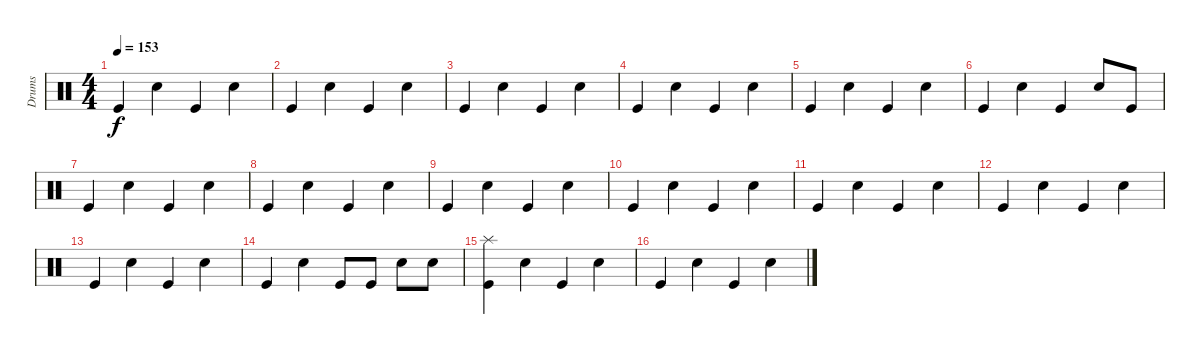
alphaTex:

\track ("Drums" "Drums") {instrument percussion}
\staff {score}
\articulation defaults
\ts (4 4)
\tempo 153
\clef neutral
\ks c "Kick (hit)".4{dy f} "Snare (hit) 2".4 "Kick (hit)".4 "Snare (hit) 2".4
|
"Kick (hit)".4 "Snare (hit) 2".4 "Kick (hit)".4 "Snare (hit) 2".4 |
"Kick (hit)".4 "Snare (hit) 2".4 "Kick (hit)".4 "Snare (hit) 2".4 |
"Kick (hit)".4 "Snare (hit) 2".4 "Kick (hit)".4 "Snare (hit) 2".4 |
"Kick (hit)".4 "Snare (hit) 2".4 "Kick (hit)".4 "Snare (hit) 2".4 |
"Kick (hit)".4 "Snare (hit) 2".4 "Kick (hit)".4 "Snare (hit) 2".8 "Kick (hit)".8 |
"Kick (hit)".4 "Snare (hit) 2".4 "Kick (hit)".4 "Snare (hit) 2".4 |
"Kick (hit)".4 "Snare (hit) 2".4 "Kick (hit)".4 "Snare (hit) 2".4 |
"Kick (hit)".4 "Snare (hit) 2".4 "Kick (hit)".4 "Snare (hit) 2".4 |
"Kick (hit)".4 "Snare (hit) 2".4 "Kick (hit)".4 "Snare (hit) 2".4 |
"Kick (hit)".4 "Snare (hit) 2".4 "Kick (hit)".4 "Snare (hit) 2".4 |
"Kick (hit)".4 "Snare (hit) 2".4 "Kick (hit)".4 "Snare (hit) 2".4 |
"Kick (hit)".4 "Snare (hit) 2".4 "Kick (hit)".4 "Snare (hit) 2".4 |
"Kick (hit)".4 "Snare (hit) 2".4 "Kick (hit)".8 "Kick (hit)".8 "Snare (hit) 2".8 "Snare (hit) 2".8 |
("Splash (hit)" "Kick (hit)").4 "Snare (hit) 2".4 "Kick (hit)".4 "Snare (hit) 2".4 |
"Kick (hit)".4 "Snare (hit) 2".4 "Kick (hit)".4 "Snare (hit) 2".4
